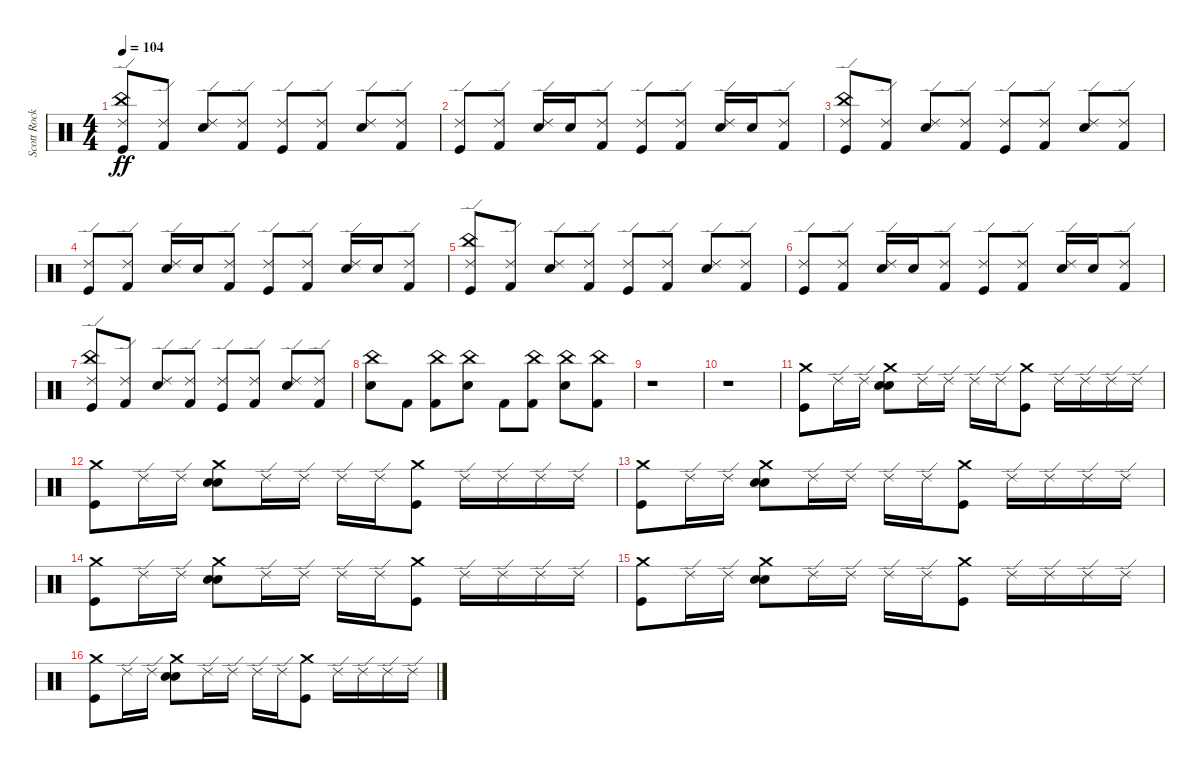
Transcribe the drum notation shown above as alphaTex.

\track ("Scott Rockenfield" "Scott Rock") {instrument percussion}
\staff {score}
\articulation defaults
\ts (4 4)
\tempo 104
\clef neutral
\ks c
("Kick (hit)" "China (hit)" "Ride (edge) 2").8{dy ff volume 16} ("Kick (hit) 2" "Ride (edge) 2").8 ("Snare (hit) 2" "Ride (edge) 2").8{volume 16} ("Kick (hit) 2" "Ride (edge) 2").8 ("Kick (hit)" "Ride (edge) 2").8{volume 16} ("Kick (hit) 2" "Ride (edge) 2").8 ("Snare (hit) 2" "Ride (edge) 2").8{volume 16} ("Kick (hit) 2" "Ride (edge) 2").8 |
("Kick (hit)" "Ride (edge) 2").8 ("Kick (hit) 2" "Ride (edge) 2").8 ("Snare (hit) 2" "Ride (edge) 2").16 "Snare (hit) 2".16 ("Kick (hit) 2" "Ride (edge) 2").8 ("Kick (hit)" "Ride (edge) 2").8 ("Kick (hit) 2" "Ride (edge) 2").8 ("Snare (hit) 2" "Ride (edge) 2").16 "Snare (hit) 2".16 ("Kick (hit) 2" "Ride (edge) 2").8 |
("Kick (hit)" "China (hit)" "Ride (edge) 2").8 ("Kick (hit) 2" "Ride (edge) 2").8 ("Snare (hit) 2" "Ride (edge) 2").8 ("Kick (hit) 2" "Ride (edge) 2").8 ("Kick (hit)" "Ride (edge) 2").8 ("Kick (hit) 2" "Ride (edge) 2").8 ("Snare (hit) 2" "Ride (edge) 2").8 ("Kick (hit) 2" "Ride (edge) 2").8 |
("Kick (hit)" "Ride (edge) 2").8 ("Kick (hit) 2" "Ride (edge) 2").8 ("Snare (hit) 2" "Ride (edge) 2").16 "Snare (hit) 2".16 ("Kick (hit) 2" "Ride (edge) 2").8 ("Kick (hit)" "Ride (edge) 2").8 ("Kick (hit) 2" "Ride (edge) 2").8 ("Snare (hit) 2" "Ride (edge) 2").16 "Snare (hit) 2".16 ("Kick (hit) 2" "Ride (edge) 2").8 |
("Kick (hit)" "China (hit)" "Ride (edge) 2").8 ("Kick (hit) 2" "Ride (edge) 2").8 ("Snare (hit) 2" "Ride (edge) 2").8 ("Kick (hit) 2" "Ride (edge) 2").8 ("Kick (hit)" "Ride (edge) 2").8 ("Kick (hit) 2" "Ride (edge) 2").8 ("Snare (hit) 2" "Ride (edge) 2").8 ("Kick (hit) 2" "Ride (edge) 2").8 |
("Kick (hit)" "Ride (edge) 2").8 ("Kick (hit) 2" "Ride (edge) 2").8 ("Snare (hit) 2" "Ride (edge) 2").16 "Snare (hit) 2".16 ("Kick (hit) 2" "Ride (edge) 2").8 ("Kick (hit)" "Ride (edge) 2").8 ("Kick (hit) 2" "Ride (edge) 2").8 ("Snare (hit) 2" "Ride (edge) 2").16 "Snare (hit) 2".16 ("Kick (hit) 2" "Ride (edge) 2").8 |
("Kick (hit)" "China (hit)" "Ride (edge) 2").8 ("Kick (hit) 2" "Ride (edge) 2").8 ("Snare (hit) 2" "Ride (edge) 2").8 ("Kick (hit) 2" "Ride (edge) 2").8 ("Kick (hit)" "Ride (edge) 2").8 ("Kick (hit) 2" "Ride (edge) 2").8 ("Snare (hit) 2" "Ride (edge) 2").8 ("Kick (hit) 2" "Ride (edge) 2").8 |
("Snare (hit) 2" "China (hit)").8 "Kick (hit) 2".8 ("Kick (hit) 2" "China (hit)").8 ("Snare (hit) 2" "China (hit)").8 "Kick (hit) 2".8 ("Kick (hit) 2" "China (hit)").8 ("Snare (hit) 2" "China (hit)").8 ("Kick (hit) 2" "China (hit)").8 |
r.1 |
r.1 |
("Kick (hit)" "Crash medium (hit)").8 "Ride (edge) 2".16 "Ride (edge) 2".16 ("Snare (hit) 2" "Electric Snare (hit)" "Crash medium (hit)").8 "Ride (edge) 2".16 "Ride (edge) 2".16 "Ride (edge) 2".16 "Ride (edge) 2".16 ("Kick (hit)" "Crash medium (hit)").8 "Ride (edge) 2".16 "Ride (edge) 2".16 "Ride (edge) 2".16 "Ride (edge) 2".16 |
("Kick (hit)" "Crash medium (hit)").8 "Ride (edge) 2".16 "Ride (edge) 2".16 ("Snare (hit) 2" "Electric Snare (hit)" "Crash medium (hit)").8 "Ride (edge) 2".16 "Ride (edge) 2".16 "Ride (edge) 2".16 "Ride (edge) 2".16 ("Kick (hit)" "Crash medium (hit)").8 "Ride (edge) 2".16 "Ride (edge) 2".16 "Ride (edge) 2".16 "Ride (edge) 2".16 |
("Kick (hit)" "Crash medium (hit)").8 "Ride (edge) 2".16 "Ride (edge) 2".16 ("Snare (hit) 2" "Electric Snare (hit)" "Crash medium (hit)").8 "Ride (edge) 2".16 "Ride (edge) 2".16 "Ride (edge) 2".16 "Ride (edge) 2".16 ("Kick (hit)" "Crash medium (hit)").8 "Ride (edge) 2".16 "Ride (edge) 2".16 "Ride (edge) 2".16 "Ride (edge) 2".16 |
("Kick (hit)" "Crash medium (hit)").8 "Ride (edge) 2".16 "Ride (edge) 2".16 ("Snare (hit) 2" "Electric Snare (hit)" "Crash medium (hit)").8 "Ride (edge) 2".16 "Ride (edge) 2".16 "Ride (edge) 2".16 "Ride (edge) 2".16 ("Kick (hit)" "Crash medium (hit)").8 "Ride (edge) 2".16 "Ride (edge) 2".16 "Ride (edge) 2".16 "Ride (edge) 2".16 |
("Kick (hit)" "Crash medium (hit)").8 "Ride (edge) 2".16 "Ride (edge) 2".16 ("Snare (hit) 2" "Electric Snare (hit)" "Crash medium (hit)").8 "Ride (edge) 2".16 "Ride (edge) 2".16 "Ride (edge) 2".16 "Ride (edge) 2".16 ("Kick (hit)" "Crash medium (hit)").8 "Ride (edge) 2".16 "Ride (edge) 2".16 "Ride (edge) 2".16 "Ride (edge) 2".16 |
("Kick (hit)" "Crash medium (hit)").8 "Ride (edge) 2".16 "Ride (edge) 2".16 ("Snare (hit) 2" "Electric Snare (hit)" "Crash medium (hit)").8 "Ride (edge) 2".16 "Ride (edge) 2".16 "Ride (edge) 2".16 "Ride (edge) 2".16 ("Kick (hit)" "Crash medium (hit)").8 "Ride (edge) 2".16 "Ride (edge) 2".16 "Ride (edge) 2".16 "Ride (edge) 2".16
